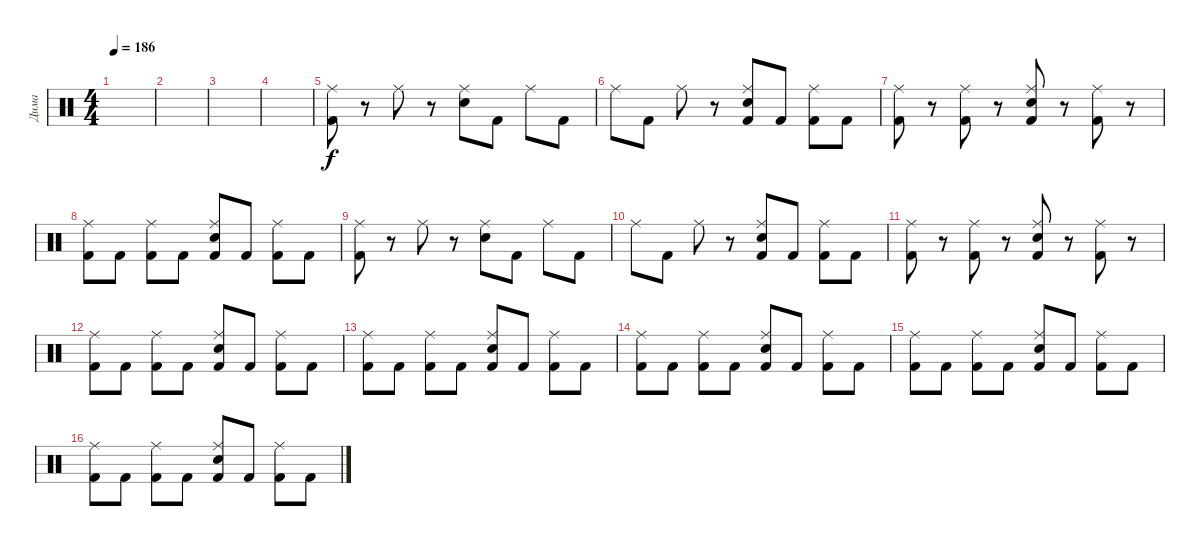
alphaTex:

\track ("Дима" "Дима") {instrument percussion}
\staff {score}
\articulation defaults
\ts (4 4)
\tempo 186
\clef neutral
\ks c
|
|
|
|
("Kick (hit) 2" "Ride (middle)").8 r.8 "Ride (middle)".8 r.8 ("Snare (hit) 2" "Ride (middle)").8 "Kick (hit) 2".8 "Ride (middle)".8 "Kick (hit) 2".8 |
"Ride (middle)".8 "Kick (hit) 2".8 "Ride (middle)".8 r.8 ("Kick (hit) 2" "Snare (hit) 2" "Ride (middle)").8 "Kick (hit) 2".8 ("Kick (hit) 2" "Ride (middle)").8 "Kick (hit) 2".8 |
("Kick (hit) 2" "Ride (middle)").8 r.8 ("Kick (hit) 2" "Ride (middle)").8 r.8 ("Kick (hit) 2" "Snare (hit) 2" "Ride (middle)").8 r.8 ("Kick (hit) 2" "Ride (middle)").8 r.8 |
("Kick (hit) 2" "Ride (middle)").8 "Kick (hit) 2".8 ("Kick (hit) 2" "Ride (middle)").8 "Kick (hit) 2".8 ("Kick (hit) 2" "Snare (hit) 2" "Ride (middle)").8 "Kick (hit) 2".8 ("Kick (hit) 2" "Ride (middle)").8 "Kick (hit) 2".8 |
("Kick (hit) 2" "Ride (middle)").8 r.8 "Ride (middle)".8 r.8 ("Snare (hit) 2" "Ride (middle)").8 "Kick (hit) 2".8 "Ride (middle)".8 "Kick (hit) 2".8 |
"Ride (middle)".8 "Kick (hit) 2".8 "Ride (middle)".8 r.8 ("Kick (hit) 2" "Snare (hit) 2" "Ride (middle)").8 "Kick (hit) 2".8 ("Kick (hit) 2" "Ride (middle)").8 "Kick (hit) 2".8 |
("Kick (hit) 2" "Ride (middle)").8 r.8 ("Kick (hit) 2" "Ride (middle)").8 r.8 ("Kick (hit) 2" "Snare (hit) 2" "Ride (middle)").8 r.8 ("Kick (hit) 2" "Ride (middle)").8 r.8 |
("Kick (hit) 2" "Ride (middle)").8 "Kick (hit) 2".8 ("Kick (hit) 2" "Ride (middle)").8 "Kick (hit) 2".8 ("Kick (hit) 2" "Snare (hit) 2" "Ride (middle)").8 "Kick (hit) 2".8 ("Kick (hit) 2" "Ride (middle)").8 "Kick (hit) 2".8 |
("Kick (hit) 2" "Ride (middle)").8 "Kick (hit) 2".8 ("Kick (hit) 2" "Ride (middle)").8 "Kick (hit) 2".8 ("Kick (hit) 2" "Snare (hit) 2" "Ride (middle)").8 "Kick (hit) 2".8 ("Kick (hit) 2" "Ride (middle)").8 "Kick (hit) 2".8 |
("Kick (hit) 2" "Ride (middle)").8 "Kick (hit) 2".8 ("Kick (hit) 2" "Ride (middle)").8 "Kick (hit) 2".8 ("Kick (hit) 2" "Snare (hit) 2" "Ride (middle)").8 "Kick (hit) 2".8 ("Kick (hit) 2" "Ride (middle)").8 "Kick (hit) 2".8 |
("Kick (hit) 2" "Ride (middle)").8 "Kick (hit) 2".8 ("Kick (hit) 2" "Ride (middle)").8 "Kick (hit) 2".8 ("Kick (hit) 2" "Snare (hit) 2" "Ride (middle)").8 "Kick (hit) 2".8 ("Kick (hit) 2" "Ride (middle)").8 "Kick (hit) 2".8 |
("Kick (hit) 2" "Ride (middle)").8 "Kick (hit) 2".8 ("Kick (hit) 2" "Ride (middle)").8 "Kick (hit) 2".8 ("Kick (hit) 2" "Snare (hit) 2" "Ride (middle)").8 "Kick (hit) 2".8 ("Kick (hit) 2" "Ride (middle)").8 "Kick (hit) 2".8
